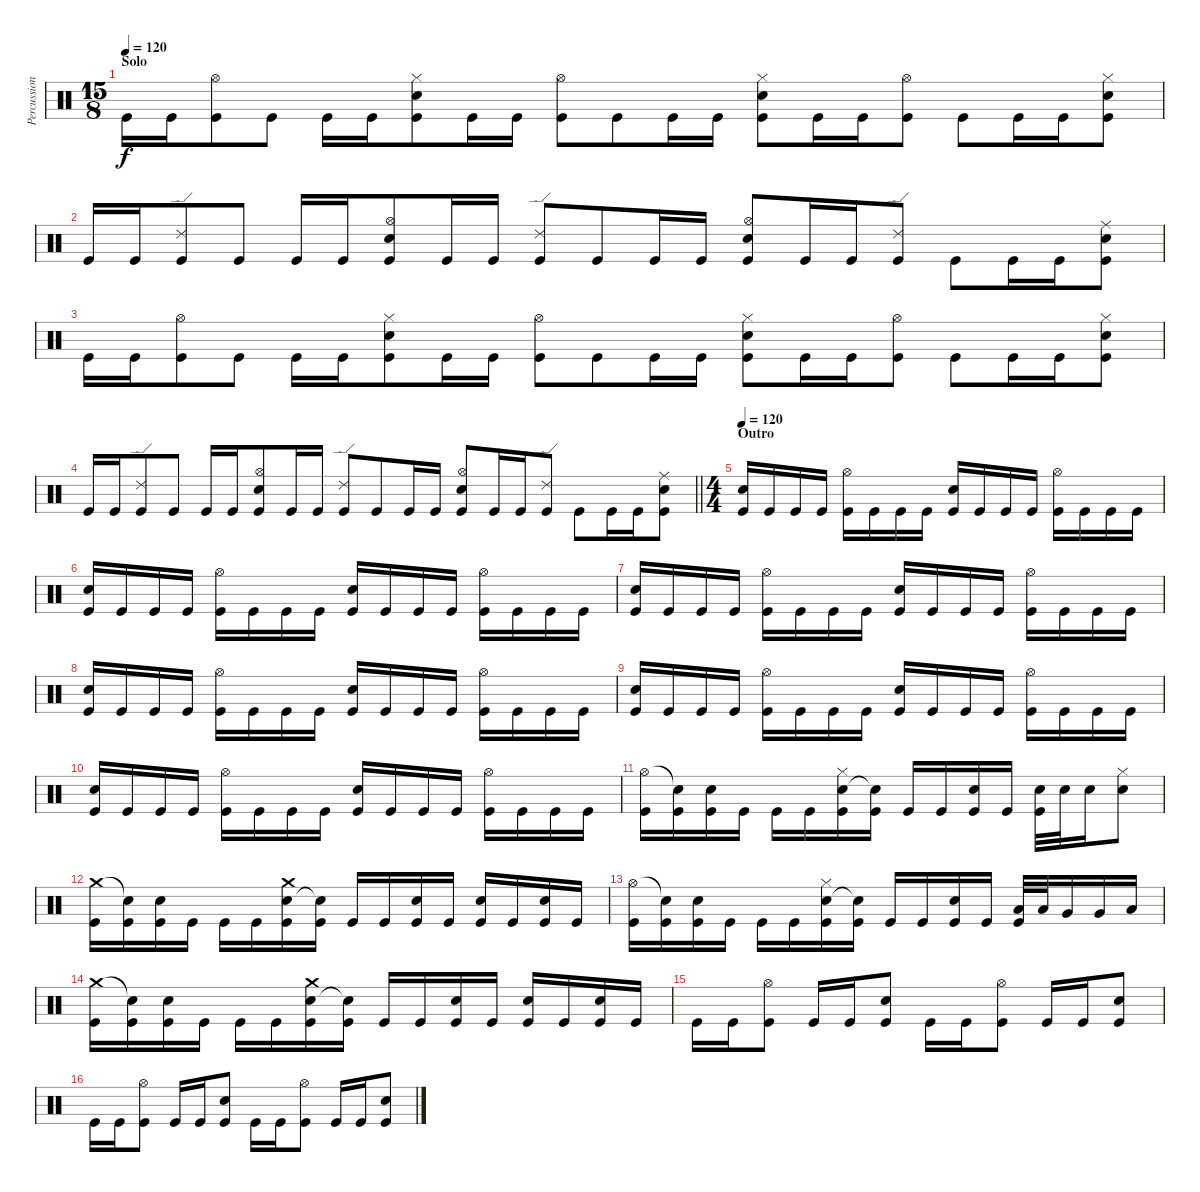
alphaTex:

\track ("Percussion" "Percussion") {instrument percussion}
\staff {score}
\articulation defaults
\ts (15 8)
\section ("" "Solo")
\tempo 120
\clef neutral
\ks c "Kick (hit)".16{dy f} "Kick (hit)".16
("Hi-Hat (open)" "Kick (hit)").8 "Kick (hit)".8 "Kick (hit)".16 "Kick (hit)".16 ("Snare (hit) 2" "Hi-Hat (closed)" "Kick (hit)").8 "Kick (hit)".16 "Kick (hit)".16 ("Hi-Hat (open)" "Kick (hit)").8 "Kick (hit)".8 "Kick (hit)".16 "Kick (hit)".16 ("Snare (hit) 2" "Hi-Hat (closed)" "Kick (hit)").8 "Kick (hit)".16 "Kick (hit)".16 ("Hi-Hat (open)" "Kick (hit)").8 "Kick (hit)".8 "Kick (hit)".16 "Kick (hit)".16 ("Snare (hit) 2" "Hi-Hat (closed)" "Kick (hit)").8 |
"Kick (hit)".16 "Kick (hit)".16 ("Ride (edge) 2" "Kick (hit)").8 "Kick (hit)".8 "Kick (hit)".16 "Kick (hit)".16 ("Snare (hit) 2" "Hi-Hat (open)" "Kick (hit)").8 "Kick (hit)".16 "Kick (hit)".16 ("Ride (edge) 2" "Kick (hit)").8 "Kick (hit)".8 "Kick (hit)".16 "Kick (hit)".16 ("Snare (hit) 2" "Hi-Hat (open)" "Kick (hit)").8 "Kick (hit)".16 "Kick (hit)".16 ("Ride (edge) 2" "Kick (hit)").8 "Kick (hit)".8 "Kick (hit)".16 "Kick (hit)".16 ("Snare (hit) 2" "Ride (middle)" "Kick (hit)").8 |
"Kick (hit)".16 "Kick (hit)".16 ("Hi-Hat (open)" "Kick (hit)").8 "Kick (hit)".8 "Kick (hit)".16 "Kick (hit)".16 ("Snare (hit) 2" "Hi-Hat (closed)" "Kick (hit)").8 "Kick (hit)".16 "Kick (hit)".16 ("Hi-Hat (open)" "Kick (hit)").8 "Kick (hit)".8 "Kick (hit)".16 "Kick (hit)".16 ("Snare (hit) 2" "Hi-Hat (closed)" "Kick (hit)").8 "Kick (hit)".16 "Kick (hit)".16 ("Hi-Hat (open)" "Kick (hit)").8 "Kick (hit)".8 "Kick (hit)".16 "Kick (hit)".16 ("Snare (hit) 2" "Hi-Hat (closed)" "Kick (hit)").8 |
\barLineRight lightlight "Kick (hit)".16 "Kick (hit)".16
("Ride (edge) 2" "Kick (hit)").8 "Kick (hit)".8 "Kick (hit)".16 "Kick (hit)".16 ("Snare (hit) 2" "Hi-Hat (open)" "Kick (hit)").8 "Kick (hit)".16 "Kick (hit)".16 ("Ride (edge) 2" "Kick (hit)").8 "Kick (hit)".8 "Kick (hit)".16 "Kick (hit)".16 ("Snare (hit) 2" "Hi-Hat (open)" "Kick (hit)").8 "Kick (hit)".16 "Kick (hit)".16 ("Ride (edge) 2" "Kick (hit)").8 "Kick (hit)".8 "Kick (hit)".16 "Kick (hit)".16 ("Snare (hit) 2" "Ride (middle)" "Kick (hit)").8 |
\ts (4 4)
\section ("" "Outro")
\tempo 120
("Snare (hit) 2" "Kick (hit)").16 "Kick (hit)".16 "Kick (hit)".16 "Kick (hit)".16 ("Hi-Hat (open)" "Kick (hit)").16 "Kick (hit)".16 "Kick (hit)".16 "Kick (hit)".16 ("Snare (hit) 2" "Kick (hit)").16 "Kick (hit)".16 "Kick (hit)".16 "Kick (hit)".16 ("Hi-Hat (open)" "Kick (hit)").16 "Kick (hit)".16 "Kick (hit)".16 "Kick (hit)".16 |
("Snare (hit) 2" "Kick (hit)").16 "Kick (hit)".16 "Kick (hit)".16 "Kick (hit)".16 ("Hi-Hat (open)" "Kick (hit)").16 "Kick (hit)".16 "Kick (hit)".16 "Kick (hit)".16 ("Snare (hit) 2" "Kick (hit)").16 "Kick (hit)".16 "Kick (hit)".16 "Kick (hit)".16 ("Hi-Hat (open)" "Kick (hit)").16 "Kick (hit)".16 "Kick (hit)".16 "Kick (hit)".16 |
("Snare (hit) 2" "Kick (hit)").16 "Kick (hit)".16 "Kick (hit)".16 "Kick (hit)".16 ("Hi-Hat (open)" "Kick (hit)").16 "Kick (hit)".16 "Kick (hit)".16 "Kick (hit)".16 ("Snare (hit) 2" "Kick (hit)").16 "Kick (hit)".16 "Kick (hit)".16 "Kick (hit)".16 ("Hi-Hat (open)" "Kick (hit)").16 "Kick (hit)".16 "Kick (hit)".16 "Kick (hit)".16 |
("Snare (hit) 2" "Kick (hit)").16 "Kick (hit)".16 "Kick (hit)".16 "Kick (hit)".16 ("Hi-Hat (open)" "Kick (hit)").16 "Kick (hit)".16 "Kick (hit)".16 "Kick (hit)".16 ("Snare (hit) 2" "Kick (hit)").16 "Kick (hit)".16 "Kick (hit)".16 "Kick (hit)".16 ("Hi-Hat (open)" "Kick (hit)").16 "Kick (hit)".16 "Kick (hit)".16 "Kick (hit)".16 |
("Snare (hit) 2" "Kick (hit)").16 "Kick (hit)".16 "Kick (hit)".16 "Kick (hit)".16 ("Hi-Hat (open)" "Kick (hit)").16 "Kick (hit)".16 "Kick (hit)".16 "Kick (hit)".16 ("Snare (hit) 2" "Kick (hit)").16 "Kick (hit)".16 "Kick (hit)".16 "Kick (hit)".16 ("Hi-Hat (open)" "Kick (hit)").16 "Kick (hit)".16 "Kick (hit)".16 "Kick (hit)".16 |
("Snare (hit) 2" "Kick (hit)").16 "Kick (hit)".16 "Kick (hit)".16 "Kick (hit)".16 ("Hi-Hat (open)" "Kick (hit)").16 "Kick (hit)".16 "Kick (hit)".16 "Kick (hit)".16 ("Snare (hit) 2" "Kick (hit)").16 "Kick (hit)".16 "Kick (hit)".16 "Kick (hit)".16 ("Hi-Hat (open)" "Kick (hit)").16 "Kick (hit)".16 "Kick (hit)".16 "Kick (hit)".16 |
("Hi-Hat (open)" "Kick (hit)").16 ("Snare (hit)"{t} "Kick (hit)").16 ("Snare (hit) 2" "Kick (hit)").16 "Kick (hit)".16 "Kick (hit)".16 "Kick (hit)".16 ("Snare (hit) 2" "Hi-Hat (closed)" "Kick (hit)").16 ("Snare (hit)"{t} "Kick (hit)").16 "Kick (hit)".16 "Kick (hit)".16 ("Snare (hit) 2" "Kick (hit)").16 "Kick (hit)".16 ("Snare (hit) 2" "Kick (hit)").32 "Snare (hit) 2".32 "Snare (hit) 2".16 ("Snare (hit) 2" "Hi-Hat (closed)").8 |
("Crash medium (hit)" "Kick (hit)").16 ("Snare (hit)"{t} "Kick (hit)").16 ("Snare (hit) 2" "Kick (hit)").16 "Kick (hit)".16 "Kick (hit)".16 "Kick (hit)".16 ("Snare (hit) 2" "Crash medium (hit)" "Kick (hit)").16 ("Snare (hit)"{t} "Kick (hit)").16 "Kick (hit)".16 "Kick (hit)".16 ("Snare (hit) 2" "Kick (hit)").16 "Kick (hit)".16 ("Snare (hit) 2" "Kick (hit)").16 "Kick (hit)".16 ("Snare (hit) 2" "Kick (hit)").16 "Kick (hit)".16 |
("Hi-Hat (open)" "Kick (hit)").16 ("Snare (hit)"{t} "Kick (hit)").16 ("Snare (hit) 2" "Kick (hit)").16 "Kick (hit)".16 "Kick (hit)".16 "Kick (hit)".16 ("Snare (hit) 2" "Hi-Hat (closed)" "Kick (hit)").16 ("Snare (hit)"{t} "Kick (hit)").16 "Kick (hit)".16 "Kick (hit)".16 ("Snare (hit) 2" "Kick (hit)").16 "Kick (hit)".16 ("Low Tom (hit)" "Kick (hit)").32 "Low Tom (hit)".32 "Very Low Tom (hit)".16 "Very Low Tom (hit)".16 "Low Floor Tom (hit)".16 |
("Crash medium (hit)" "Kick (hit)").16 ("Snare (hit)"{t} "Kick (hit)").16 ("Snare (hit) 2" "Kick (hit)").16 "Kick (hit)".16 "Kick (hit)".16 "Kick (hit)".16 ("Snare (hit) 2" "Crash medium (hit)" "Kick (hit)").16 ("Snare (hit)"{t} "Kick (hit)").16 "Kick (hit)".16 "Kick (hit)".16 ("Snare (hit) 2" "Kick (hit)").16 "Kick (hit)".16 ("Snare (hit) 2" "Kick (hit)").16 "Kick (hit)".16 ("Snare (hit) 2" "Kick (hit)").16 "Kick (hit)".16 |
"Kick (hit)".16 "Kick (hit)".16 ("Hi-Hat (open)" "Kick (hit)").8 "Kick (hit)".16 "Kick (hit)".16 ("Snare (hit) 2" "Kick (hit)").8 "Kick (hit)".16 "Kick (hit)".16 ("Hi-Hat (open)" "Kick (hit)").8 "Kick (hit)".16 "Kick (hit)".16 ("Snare (hit) 2" "Kick (hit)").8 |
"Kick (hit)".16 "Kick (hit)".16 ("Hi-Hat (open)" "Kick (hit)").8 "Kick (hit)".16 "Kick (hit)".16 ("Snare (hit) 2" "Kick (hit)").8 "Kick (hit)".16 "Kick (hit)".16 ("Hi-Hat (open)" "Kick (hit)").8 "Kick (hit)".16 "Kick (hit)".16 ("Snare (hit) 2" "Kick (hit)").8
